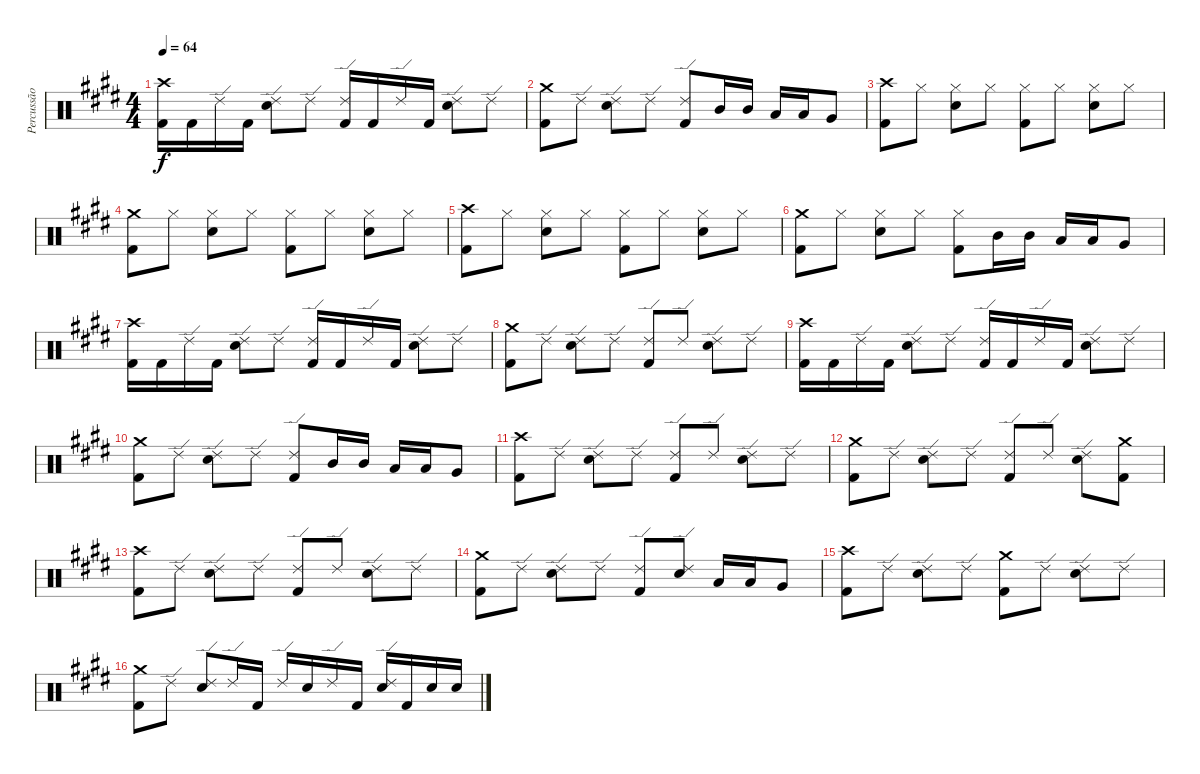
\track ("Percussão" "Percussão") {instrument percussion}
\staff {score}
\articulation defaults
\ts (4 4)
\tempo 64
\clef neutral
\ks e
("Crash high (hit)" "Kick (hit) 2").16{dy f} "Kick (hit) 2".16 "Ride (edge) 2".16 "Kick (hit) 2".16 ("Ride (edge) 2" "Electric Snare (hit)").8 "Ride (edge) 2".8 ("Ride (edge) 2" "Kick (hit) 2").16 "Kick (hit) 2".16 "Ride (edge) 2".16 "Kick (hit) 2".16 ("Ride (edge) 2" "Electric Snare (hit)").8 "Ride (edge) 2".8 |
("Crash medium (hit)" "Kick (hit) 2").8 "Ride (edge) 2".8 ("Ride (edge) 2" "Electric Snare (hit)").8 "Ride (edge) 2".8 ("Ride (edge) 2" "Kick (hit) 2").8 "Mid Tom (hit)".16 "Mid Tom (hit)".16 "Low Tom (hit)".16 "Low Tom (hit)".16 "Very Low Tom (hit)".8 |
("Crash high (hit)" "Kick (hit) 2").8 "Hi-Hat (closed)".8 ("Hi-Hat (closed)" "Electric Snare (hit)").8 "Hi-Hat (closed)".8 ("Hi-Hat (closed)" "Kick (hit) 2").8 "Hi-Hat (closed)".8 ("Hi-Hat (closed)" "Electric Snare (hit)").8 "Hi-Hat (closed)".8 |
("Crash medium (hit)" "Kick (hit) 2").8 "Hi-Hat (closed)".8 ("Hi-Hat (closed)" "Electric Snare (hit)").8 "Hi-Hat (closed)".8 ("Hi-Hat (closed)" "Kick (hit) 2").8 "Hi-Hat (closed)".8 ("Hi-Hat (closed)" "Electric Snare (hit)").8 "Hi-Hat (closed)".8 |
("Crash high (hit)" "Kick (hit) 2").8 "Hi-Hat (closed)".8 ("Hi-Hat (closed)" "Electric Snare (hit)").8 "Hi-Hat (closed)".8 ("Hi-Hat (closed)" "Kick (hit) 2").8 "Hi-Hat (closed)".8 ("Hi-Hat (closed)" "Electric Snare (hit)").8 "Hi-Hat (closed)".8 |
("Crash medium (hit)" "Kick (hit) 2").8 "Hi-Hat (closed)".8 ("Hi-Hat (closed)" "Electric Snare (hit)").8 "Hi-Hat (closed)".8 ("Hi-Hat (closed)" "Kick (hit) 2").8 "Mid Tom (hit)".16 "Mid Tom (hit)".16 "Low Tom (hit)".16 "Low Tom (hit)".16 "Very Low Tom (hit)".8 |
("Crash high (hit)" "Kick (hit) 2").16 "Kick (hit) 2".16 "Ride (edge) 2".16 "Kick (hit) 2".16 ("Ride (edge) 2" "Electric Snare (hit)").8 "Ride (edge) 2".8 ("Ride (edge) 2" "Kick (hit) 2").16 "Kick (hit) 2".16 "Ride (edge) 2".16 "Kick (hit) 2".16 ("Ride (edge) 2" "Electric Snare (hit)").8 "Ride (edge) 2".8 |
("Crash medium (hit)" "Kick (hit) 2").8 "Ride (edge) 2".8 ("Ride (edge) 2" "Electric Snare (hit)").8 "Ride (edge) 2".8 ("Ride (edge) 2" "Kick (hit) 2").8 "Ride (edge) 2".8 ("Ride (edge) 2" "Electric Snare (hit)").8 "Ride (edge) 2".8 |
("Crash high (hit)" "Kick (hit) 2").16 "Kick (hit) 2".16 "Ride (edge) 2".16 "Kick (hit) 2".16 ("Ride (edge) 2" "Electric Snare (hit)").8 "Ride (edge) 2".8 ("Ride (edge) 2" "Kick (hit) 2").16 "Kick (hit) 2".16 "Ride (edge) 2".16 "Kick (hit) 2".16 ("Ride (edge) 2" "Electric Snare (hit)").8 "Ride (edge) 2".8 |
("Crash medium (hit)" "Kick (hit) 2").8 "Ride (edge) 2".8 ("Ride (edge) 2" "Electric Snare (hit)").8 "Ride (edge) 2".8 ("Ride (edge) 2" "Kick (hit) 2").8 "Mid Tom (hit)".16 "Mid Tom (hit)".16 "Low Tom (hit)".16 "Low Tom (hit)".16 "Very Low Tom (hit)".8 |
("Crash high (hit)" "Kick (hit) 2").8 "Ride (edge) 2".8 ("Ride (edge) 2" "Electric Snare (hit)").8 "Ride (edge) 2".8 ("Ride (edge) 2" "Kick (hit) 2").8 "Ride (edge) 2".8 ("Ride (edge) 2" "Electric Snare (hit)").8 "Ride (edge) 2".8 |
("Crash medium (hit)" "Kick (hit) 2").8 "Ride (edge) 2".8 ("Ride (edge) 2" "Electric Snare (hit)").8 "Ride (edge) 2".8 ("Ride (edge) 2" "Kick (hit) 2").8 "Ride (edge) 2".8 ("Ride (edge) 2" "Electric Snare (hit)").8 ("Crash medium (hit)" "Kick (hit) 2").8 |
("Crash high (hit)" "Kick (hit) 2").8 "Ride (edge) 2".8 ("Ride (edge) 2" "Electric Snare (hit)").8 "Ride (edge) 2".8 ("Ride (edge) 2" "Kick (hit) 2").8 "Ride (edge) 2".8 ("Ride (edge) 2" "Electric Snare (hit)").8 "Ride (edge) 2".8 |
("Crash medium (hit)" "Kick (hit) 2").8 "Ride (edge) 2".8 ("Ride (edge) 2" "Electric Snare (hit)").8 "Ride (edge) 2".8 ("Ride (edge) 2" "Kick (hit) 2").8 ("Ride (edge) 2" "Electric Snare (hit)").8 "Low Tom (hit)".16 "Low Tom (hit)".16 "Very Low Tom (hit)".8 |
("Crash high (hit)" "Kick (hit) 2").8 "Ride (edge) 2".8 ("Ride (edge) 2" "Electric Snare (hit)").8 "Ride (edge) 2".8 ("Crash medium (hit)" "Kick (hit) 2").8 "Ride (edge) 2".8 ("Ride (edge) 2" "Electric Snare (hit)").8 "Ride (edge) 2".8 |
("Crash medium (hit)" "Kick (hit) 2").8 "Ride (edge) 2".8 ("Ride (edge) 2" "Electric Snare (hit)").8 "Ride (edge) 2".16 "Kick (hit) 2".16 "Ride (edge) 2".16 "Electric Snare (hit)".16 "Ride (edge) 2".16 "Kick (hit) 2".16 ("Ride (edge) 2" "Electric Snare (hit)").16 "Kick (hit) 2".16 "Electric Snare (hit)".16 "Electric Snare (hit)".16
